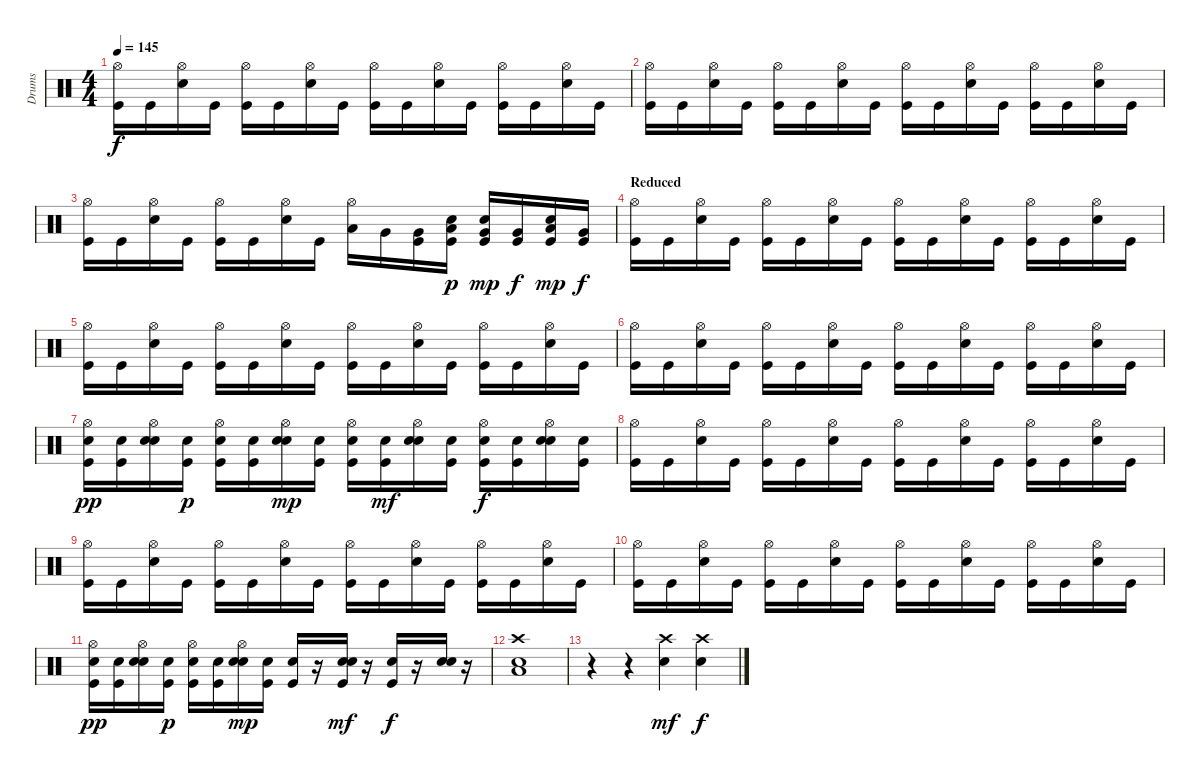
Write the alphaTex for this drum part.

\track ("Drums" "Drums") {instrument percussion}
\staff {score}
\articulation defaults
\ts (4 4)
\tempo 145
\clef neutral
\ks c
("Hi-Hat (open)" "Kick (hit)").16{dy f} "Kick (hit)".16 ("Hi-Hat (open)" "Electric Snare (hit)").16 "Kick (hit)".16 ("Hi-Hat (open)" "Kick (hit)").16 "Kick (hit)".16 ("Hi-Hat (open)" "Electric Snare (hit)").16 "Kick (hit)".16 ("Hi-Hat (open)" "Kick (hit)").16 "Kick (hit)".16 ("Hi-Hat (open)" "Electric Snare (hit)").16 "Kick (hit)".16 ("Hi-Hat (open)" "Kick (hit)").16 "Kick (hit)".16 ("Hi-Hat (open)" "Electric Snare (hit)").16 "Kick (hit)".16 |
("Hi-Hat (open)" "Kick (hit)").16 "Kick (hit)".16 ("Hi-Hat (open)" "Electric Snare (hit)").16 "Kick (hit)".16 ("Hi-Hat (open)" "Kick (hit)").16 "Kick (hit)".16 ("Hi-Hat (open)" "Electric Snare (hit)").16 "Kick (hit)".16 ("Hi-Hat (open)" "Kick (hit)").16 "Kick (hit)".16 ("Hi-Hat (open)" "Electric Snare (hit)").16 "Kick (hit)".16 ("Hi-Hat (open)" "Kick (hit)").16 "Kick (hit)".16 ("Hi-Hat (open)" "Electric Snare (hit)").16 "Kick (hit)".16 |
("Hi-Hat (open)" "Kick (hit)").16 "Kick (hit)".16 ("Hi-Hat (open)" "Electric Snare (hit)").16 "Kick (hit)".16 ("Hi-Hat (open)" "Kick (hit)").16 "Kick (hit)".16 ("Hi-Hat (open)" "Electric Snare (hit)").16 "Kick (hit)".16 ("Hi-Hat (open)" "Low Tom (hit)").16 "Very Low Tom (hit)".16 ("Very Low Tom (hit)" "Kick (hit)").16 ("Snare (hit) 2" "Low Tom (hit)" "Kick (hit)").16{dy p} ("Snare (hit) 2" "Very Low Tom (hit)" "Kick (hit)").16{dy mp} ("Very Low Tom (hit)" "Kick (hit)").16{dy f} ("Snare (hit) 2" "Low Floor Tom (hit)" "Kick (hit)").16{dy mp} ("Very Low Tom (hit)" "Kick (hit)").16{dy f} |
\section ("" "Reduced")
("Hi-Hat (open)" "Kick (hit)").16 "Kick (hit)".16 ("Hi-Hat (open)" "Electric Snare (hit)").16 "Kick (hit)".16 ("Hi-Hat (open)" "Kick (hit)").16 "Kick (hit)".16 ("Hi-Hat (open)" "Electric Snare (hit)").16 "Kick (hit)".16 ("Hi-Hat (open)" "Kick (hit)").16 "Kick (hit)".16 ("Hi-Hat (open)" "Electric Snare (hit)").16 "Kick (hit)".16 ("Hi-Hat (open)" "Kick (hit)").16 "Kick (hit)".16 ("Hi-Hat (open)" "Electric Snare (hit)").16 "Kick (hit)".16 |
("Hi-Hat (open)" "Kick (hit)").16 "Kick (hit)".16 ("Hi-Hat (open)" "Electric Snare (hit)").16 "Kick (hit)".16 ("Hi-Hat (open)" "Kick (hit)").16 "Kick (hit)".16 ("Hi-Hat (open)" "Electric Snare (hit)").16 "Kick (hit)".16 ("Hi-Hat (open)" "Kick (hit)").16 "Kick (hit)".16 ("Hi-Hat (open)" "Electric Snare (hit)").16 "Kick (hit)".16 ("Hi-Hat (open)" "Kick (hit)").16 "Kick (hit)".16 ("Hi-Hat (open)" "Electric Snare (hit)").16 "Kick (hit)".16 |
("Hi-Hat (open)" "Kick (hit)").16 "Kick (hit)".16 ("Hi-Hat (open)" "Electric Snare (hit)").16 "Kick (hit)".16 ("Hi-Hat (open)" "Kick (hit)").16 "Kick (hit)".16 ("Hi-Hat (open)" "Electric Snare (hit)").16 "Kick (hit)".16 ("Hi-Hat (open)" "Kick (hit)").16 "Kick (hit)".16 ("Hi-Hat (open)" "Electric Snare (hit)").16 "Kick (hit)".16 ("Hi-Hat (open)" "Kick (hit)").16 "Kick (hit)".16 ("Hi-Hat (open)" "Electric Snare (hit)").16 "Kick (hit)".16 |
("Hi-Hat (open)" "Snare (hit) 2" "Kick (hit)").16{dy pp} ("Snare (hit) 2" "Kick (hit)").16 ("Hi-Hat (open)" "Electric Snare (hit)" "Snare (hit) 2").16 ("Snare (hit) 2" "Kick (hit)").16{dy p} ("Hi-Hat (open)" "Snare (hit) 2" "Kick (hit)").16 ("Snare (hit) 2" "Kick (hit)").16 ("Hi-Hat (open)" "Electric Snare (hit)" "Snare (hit) 2").16{dy mp} ("Snare (hit) 2" "Kick (hit)").16 ("Hi-Hat (open)" "Snare (hit) 2" "Kick (hit)").16 ("Snare (hit) 2" "Kick (hit)").16{dy mf} ("Hi-Hat (open)" "Electric Snare (hit)" "Snare (hit) 2").16 ("Snare (hit) 2" "Kick (hit)").16 ("Hi-Hat (open)" "Snare (hit) 2" "Kick (hit)").16{dy f} ("Snare (hit) 2" "Kick (hit)").16 ("Hi-Hat (open)" "Electric Snare (hit)" "Snare (hit) 2").16 ("Snare (hit) 2" "Kick (hit)").16 |
("Hi-Hat (open)" "Kick (hit)").16 "Kick (hit)".16 ("Hi-Hat (open)" "Electric Snare (hit)").16 "Kick (hit)".16 ("Hi-Hat (open)" "Kick (hit)").16 "Kick (hit)".16 ("Hi-Hat (open)" "Electric Snare (hit)").16 "Kick (hit)".16 ("Hi-Hat (open)" "Kick (hit)").16 "Kick (hit)".16 ("Hi-Hat (open)" "Electric Snare (hit)").16 "Kick (hit)".16 ("Hi-Hat (open)" "Kick (hit)").16 "Kick (hit)".16 ("Hi-Hat (open)" "Electric Snare (hit)").16 "Kick (hit)".16 |
("Hi-Hat (open)" "Kick (hit)").16 "Kick (hit)".16 ("Hi-Hat (open)" "Electric Snare (hit)").16 "Kick (hit)".16 ("Hi-Hat (open)" "Kick (hit)").16 "Kick (hit)".16 ("Hi-Hat (open)" "Electric Snare (hit)").16 "Kick (hit)".16 ("Hi-Hat (open)" "Kick (hit)").16 "Kick (hit)".16 ("Hi-Hat (open)" "Electric Snare (hit)").16 "Kick (hit)".16 ("Hi-Hat (open)" "Kick (hit)").16 "Kick (hit)".16 ("Hi-Hat (open)" "Electric Snare (hit)").16 "Kick (hit)".16 |
("Hi-Hat (open)" "Kick (hit)").16 "Kick (hit)".16 ("Hi-Hat (open)" "Electric Snare (hit)").16 "Kick (hit)".16 ("Hi-Hat (open)" "Kick (hit)").16 "Kick (hit)".16 ("Hi-Hat (open)" "Electric Snare (hit)").16 "Kick (hit)".16 ("Hi-Hat (open)" "Kick (hit)").16 "Kick (hit)".16 ("Hi-Hat (open)" "Electric Snare (hit)").16 "Kick (hit)".16 ("Hi-Hat (open)" "Kick (hit)").16 "Kick (hit)".16 ("Hi-Hat (open)" "Electric Snare (hit)").16 "Kick (hit)".16 |
("Hi-Hat (open)" "Snare (hit) 2" "Kick (hit)").16{dy pp} ("Snare (hit) 2" "Kick (hit)").16 ("Hi-Hat (open)" "Electric Snare (hit)" "Snare (hit) 2").16 ("Snare (hit) 2" "Kick (hit)").16{dy p} ("Hi-Hat (open)" "Snare (hit) 2" "Kick (hit)").16 ("Snare (hit) 2" "Kick (hit)").16 ("Hi-Hat (open)" "Electric Snare (hit)" "Snare (hit) 2").16{dy mp} ("Snare (hit) 2" "Kick (hit)").16 ("Snare (hit) 2" "Kick (hit)").16 r.16 ("Electric Snare (hit)" "Snare (hit) 2" "Kick (hit)").16{dy mf} r.16 ("Snare (hit) 2" "Kick (hit)").16{dy f} r.16 ("Electric Snare (hit)" "Snare (hit) 2").16 r.16 |
("Crash high (hit)" "Snare (hit) 2" "Low Tom (hit)").1 |
r.4 r.4 ("Crash high (hit)" "Electric Snare (hit)").4{dy mf} ("Crash high (hit)" "Electric Snare (hit)").4{dy f}
